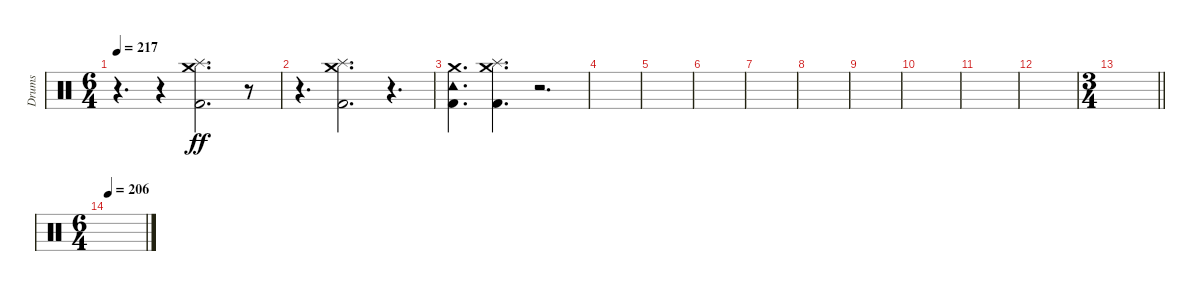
\track ("Drums" "Drums") {instrument percussion}
\staff {score}
\articulation defaults
\ts (6 4)
\tempo 217
\clef neutral
\ks c
r.4{d dy ff} r.4 ("Crash medium (hit)" "Splash (hit)" "Kick (hit) 2").2{d} r.8 |
r.4{d} ("Crash medium (hit)" "Splash (hit)" "Kick (hit) 2").2{d} r.4{d} |
("Crash medium (hit)" "Tambourine (hit)" "Kick (hit) 2").4{d} ("Crash medium (hit)" "Splash (hit)" "Kick (hit) 2").4{d} r.2{d} |
|
|
|
|
|
|
|
|
|
\ts (3 4)
\barLineRight lightlight
|
\ts (6 4)
\section ("" "")
\tempo 206
